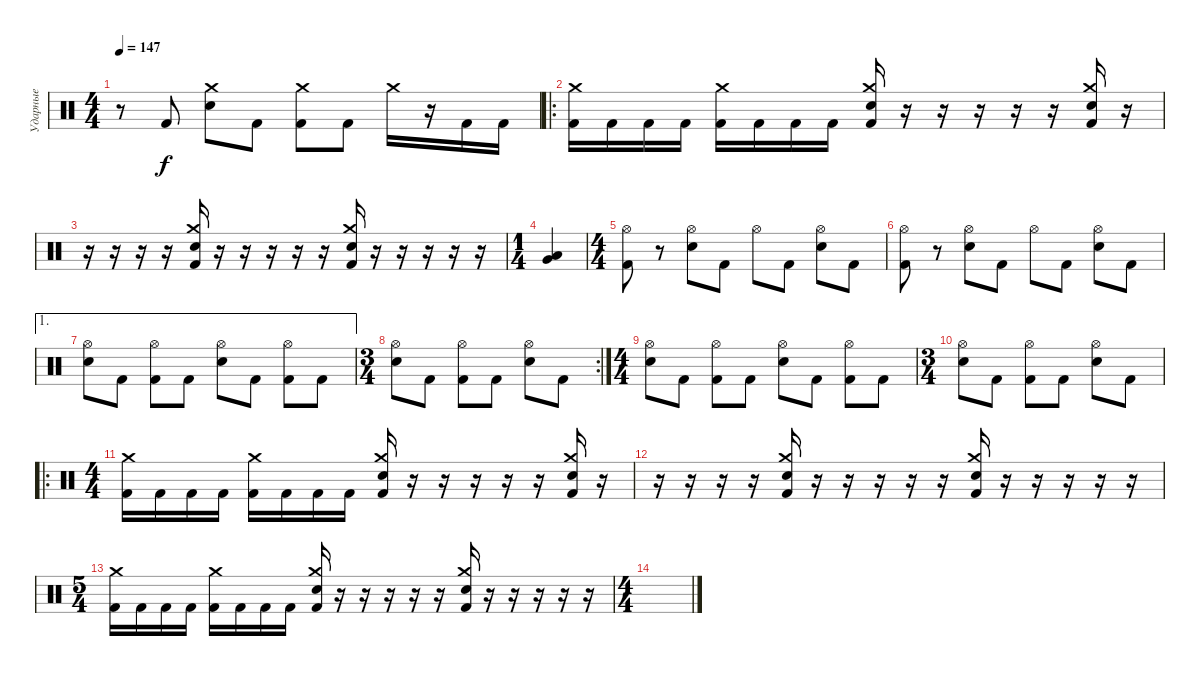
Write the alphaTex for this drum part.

\track ("Ударные" "Ударные") {instrument percussion}
\staff {score}
\articulation defaults
\ts (4 4)
\tempo 147
\clef neutral
\ks c
r.8{dy f} "Kick (hit) 2".8 ("Crash medium (hit)" "Electric Snare (hit)").8 "Kick (hit) 2".8 ("Crash medium (hit)" "Kick (hit) 2").8 "Kick (hit) 2".8 "Crash medium (hit)".16 r.16 "Kick (hit) 2".16 "Kick (hit) 2".16 |
\ro
("Crash medium (hit)" "Kick (hit) 2").16 "Kick (hit) 2".16 "Kick (hit) 2".16 "Kick (hit) 2".16 ("Crash medium (hit)" "Kick (hit) 2").16 "Kick (hit) 2".16 "Kick (hit) 2".16 "Kick (hit) 2".16 ("Crash medium (hit)" "Electric Snare (hit)" "Kick (hit) 2").16 r.16 r.16 r.16 r.16 r.16 ("Crash medium (hit)" "Electric Snare (hit)" "Kick (hit) 2").16 r.16 |
r.16 r.16 r.16 r.16 ("Crash medium (hit)" "Electric Snare (hit)" "Kick (hit) 2").16 r.16 r.16 r.16 r.16 r.16 ("Crash medium (hit)" "Electric Snare (hit)" "Kick (hit) 2").16 r.16 r.16 r.16 r.16 r.16 |
\ts (1 4)
("Low Tom (hit)" "Very Low Tom (hit)").4 |
\ts (4 4)
("Hi-Hat (open)" "Kick (hit) 2").8 r.8 ("Hi-Hat (open)" "Electric Snare (hit)").8 "Kick (hit) 2".8 "Hi-Hat (open)".8 "Kick (hit) 2".8 ("Hi-Hat (open)" "Electric Snare (hit)").8 "Kick (hit) 2".8 |
("Hi-Hat (open)" "Kick (hit) 2").8 r.8 ("Hi-Hat (open)" "Electric Snare (hit)").8 "Kick (hit) 2".8 "Hi-Hat (open)".8 "Kick (hit) 2".8 ("Hi-Hat (open)" "Electric Snare (hit)").8 "Kick (hit) 2".8 |
\ae 1
("Hi-Hat (open)" "Electric Snare (hit)").8 "Kick (hit) 2".8 ("Hi-Hat (open)" "Kick (hit) 2").8 "Kick (hit) 2".8 ("Hi-Hat (open)" "Electric Snare (hit)").8 "Kick (hit) 2".8 ("Hi-Hat (open)" "Kick (hit) 2").8 "Kick (hit) 2".8 |
\rc 2
\ts (3 4)
("Hi-Hat (open)" "Electric Snare (hit)").8 "Kick (hit) 2".8 ("Hi-Hat (open)" "Kick (hit) 2").8 "Kick (hit) 2".8 ("Hi-Hat (open)" "Electric Snare (hit)").8 "Kick (hit) 2".8 |
\ts (4 4)
("Hi-Hat (open)" "Electric Snare (hit)").8 "Kick (hit) 2".8 ("Hi-Hat (open)" "Kick (hit) 2").8 "Kick (hit) 2".8 ("Hi-Hat (open)" "Electric Snare (hit)").8 "Kick (hit) 2".8 ("Hi-Hat (open)" "Kick (hit) 2").8 "Kick (hit) 2".8 |
\ts (3 4)
("Hi-Hat (open)" "Electric Snare (hit)").8 "Kick (hit) 2".8 ("Hi-Hat (open)" "Kick (hit) 2").8 "Kick (hit) 2".8 ("Hi-Hat (open)" "Electric Snare (hit)").8 "Kick (hit) 2".8 |
\ro
\ts (4 4)
("Crash medium (hit)" "Kick (hit) 2").16 "Kick (hit) 2".16 "Kick (hit) 2".16 "Kick (hit) 2".16 ("Crash medium (hit)" "Kick (hit) 2").16 "Kick (hit) 2".16 "Kick (hit) 2".16 "Kick (hit) 2".16 ("Crash medium (hit)" "Electric Snare (hit)" "Kick (hit) 2").16 r.16 r.16 r.16 r.16 r.16 ("Crash medium (hit)" "Electric Snare (hit)" "Kick (hit) 2").16 r.16 |
r.16 r.16 r.16 r.16 ("Crash medium (hit)" "Electric Snare (hit)" "Kick (hit) 2").16 r.16 r.16 r.16 r.16 r.16 ("Crash medium (hit)" "Electric Snare (hit)" "Kick (hit) 2").16 r.16 r.16 r.16 r.16 r.16 |
\ts (5 4)
("Crash medium (hit)" "Kick (hit) 2").16 "Kick (hit) 2".16 "Kick (hit) 2".16 "Kick (hit) 2".16 ("Crash medium (hit)" "Kick (hit) 2").16 "Kick (hit) 2".16 "Kick (hit) 2".16 "Kick (hit) 2".16 ("Crash medium (hit)" "Electric Snare (hit)" "Kick (hit) 2").16 r.16 r.16 r.16 r.16 r.16 ("Crash medium (hit)" "Electric Snare (hit)" "Kick (hit) 2").16 r.16 r.16 r.16 r.16 r.16 |
\ts (4 4)
